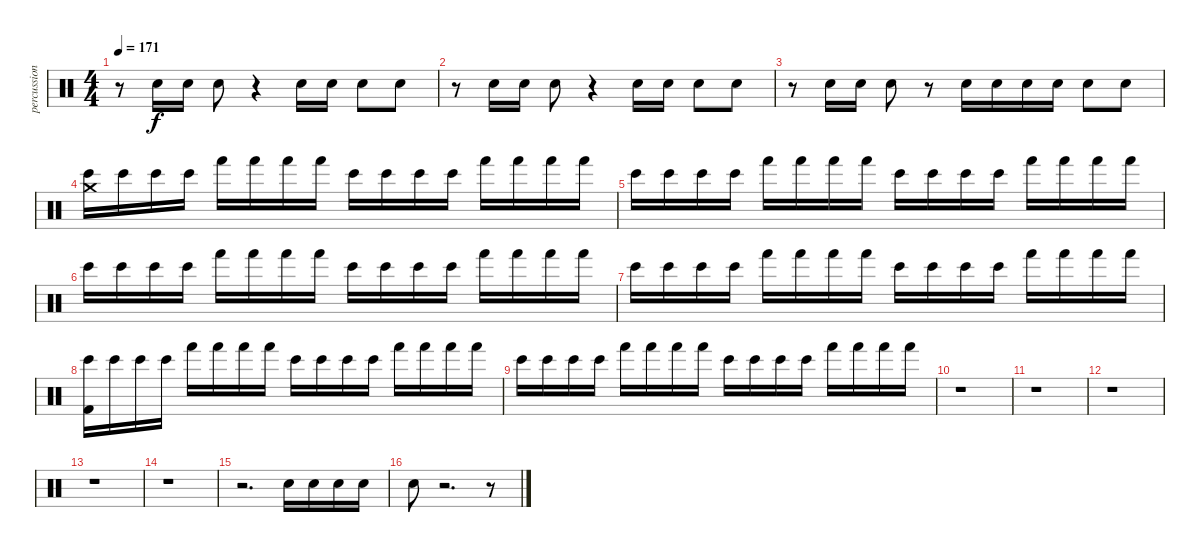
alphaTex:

\track ("percussion" "percussion") {instrument percussion}
\staff {score}
\articulation defaults
\ts (4 4)
\tempo 171
\clef neutral
\ks c
r.8{dy f} "Electric Snare (hit)".16 "Electric Snare (hit)".16 "Electric Snare (hit)".8 r.4 "Electric Snare (hit)".16 "Electric Snare (hit)".16 "Electric Snare (hit)".8 "Electric Snare (hit)".8 |
r.8 "Electric Snare (hit)".16 "Electric Snare (hit)".16 "Electric Snare (hit)".8 r.4 "Electric Snare (hit)".16 "Electric Snare (hit)".16 "Electric Snare (hit)".8 "Electric Snare (hit)".8 |
r.8 "Electric Snare (hit)".16 "Electric Snare (hit)".16 "Electric Snare (hit)".8 r.8 "Electric Snare (hit)".16 "Electric Snare (hit)".16 "Electric Snare (hit)".16 "Electric Snare (hit)".16 "Electric Snare (hit)".8 "Electric Snare (hit)".8 |
("Bongo High (hit)" "Crash medium (hit)").16 "Bongo High (hit)".16 "Bongo High (hit)".16 "Bongo High (hit)".16 "Hand (hit)".16 "Hand (hit)".16 "Hand (hit)".16 "Hand (hit)".16 "Bongo High (hit)".16 "Bongo High (hit)".16 "Bongo High (hit)".16 "Bongo High (hit)".16 "Hand (hit)".16 "Hand (hit)".16 "Hand (hit)".16 "Hand (hit)".16 |
"Bongo High (hit)".16 "Bongo High (hit)".16 "Bongo High (hit)".16 "Bongo High (hit)".16 "Hand (hit)".16 "Hand (hit)".16 "Hand (hit)".16 "Hand (hit)".16 "Bongo High (hit)".16 "Bongo High (hit)".16 "Bongo High (hit)".16 "Bongo High (hit)".16 "Hand (hit)".16 "Hand (hit)".16 "Hand (hit)".16 "Hand (hit)".16 |
"Bongo High (hit)".16 "Bongo High (hit)".16 "Bongo High (hit)".16 "Bongo High (hit)".16 "Hand (hit)".16 "Hand (hit)".16 "Hand (hit)".16 "Hand (hit)".16 "Bongo High (hit)".16 "Bongo High (hit)".16 "Bongo High (hit)".16 "Bongo High (hit)".16 "Hand (hit)".16 "Hand (hit)".16 "Hand (hit)".16 "Hand (hit)".16 |
"Bongo High (hit)".16 "Bongo High (hit)".16 "Bongo High (hit)".16 "Bongo High (hit)".16 "Hand (hit)".16 "Hand (hit)".16 "Hand (hit)".16 "Hand (hit)".16 "Bongo High (hit)".16 "Bongo High (hit)".16 "Bongo High (hit)".16 "Bongo High (hit)".16 "Hand (hit)".16 "Hand (hit)".16 "Hand (hit)".16 "Hand (hit)".16 |
("Bongo High (hit)" "Kick (hit) 2").16 "Bongo High (hit)".16 "Bongo High (hit)".16 "Bongo High (hit)".16 "Hand (hit)".16 "Hand (hit)".16 "Hand (hit)".16 "Hand (hit)".16 "Bongo High (hit)".16 "Bongo High (hit)".16 "Bongo High (hit)".16 "Bongo High (hit)".16 "Hand (hit)".16 "Hand (hit)".16 "Hand (hit)".16 "Hand (hit)".16 |
"Bongo High (hit)".16 "Bongo High (hit)".16 "Bongo High (hit)".16 "Bongo High (hit)".16 "Hand (hit)".16 "Hand (hit)".16 "Hand (hit)".16 "Hand (hit)".16 "Bongo High (hit)".16 "Bongo High (hit)".16 "Bongo High (hit)".16 "Bongo High (hit)".16 "Hand (hit)".16 "Hand (hit)".16 "Hand (hit)".16 "Hand (hit)".16 |
r.1 |
r.1 |
r.1 |
r.1 |
r.1 |
r.2{d} "Electric Snare (hit)".16 "Electric Snare (hit)".16 "Electric Snare (hit)".16 "Electric Snare (hit)".16 |
"Electric Snare (hit)".8 r.2{d} r.8
